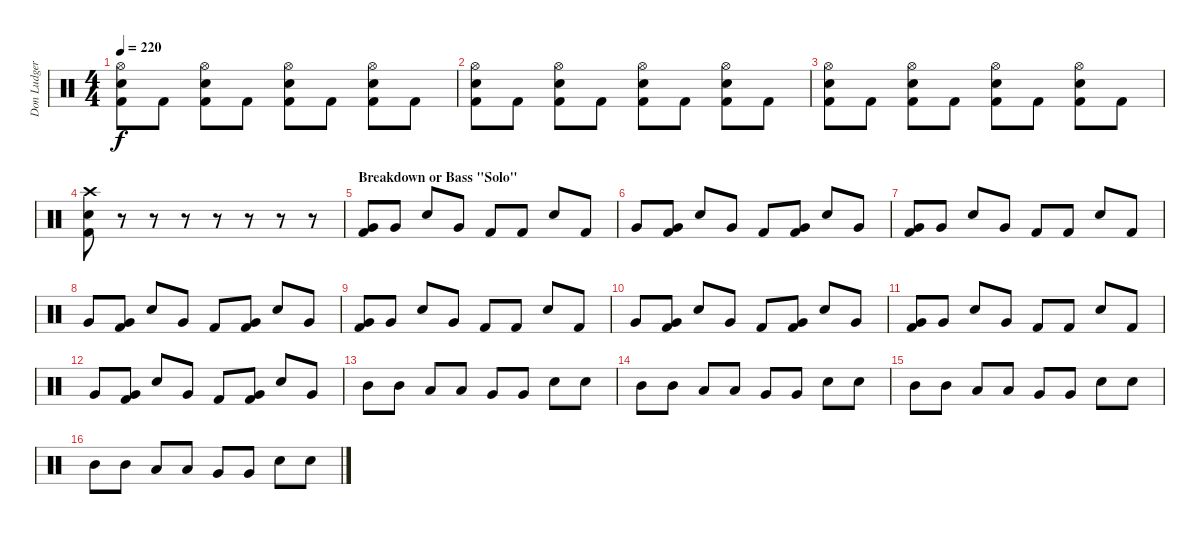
\track ("Don Ludger" "Don Ludger") {instrument percussion}
\staff {score}
\articulation defaults
\ts (4 4)
\tempo 220
\clef neutral
\ks c
("Hi-Hat (open)" "Electric Snare (hit)" "Kick (hit) 2").8{dy f} "Kick (hit) 2".8 ("Hi-Hat (open)" "Electric Snare (hit)" "Kick (hit) 2").8 "Kick (hit) 2".8 ("Hi-Hat (open)" "Electric Snare (hit)" "Kick (hit) 2").8 "Kick (hit) 2".8 ("Hi-Hat (open)" "Electric Snare (hit)" "Kick (hit) 2").8 "Kick (hit) 2".8 |
("Hi-Hat (open)" "Electric Snare (hit)" "Kick (hit) 2").8 "Kick (hit) 2".8 ("Hi-Hat (open)" "Electric Snare (hit)" "Kick (hit) 2").8 "Kick (hit) 2".8 ("Hi-Hat (open)" "Electric Snare (hit)" "Kick (hit) 2").8 "Kick (hit) 2".8 ("Hi-Hat (open)" "Electric Snare (hit)" "Kick (hit) 2").8 "Kick (hit) 2".8 |
("Hi-Hat (open)" "Electric Snare (hit)" "Kick (hit) 2").8 "Kick (hit) 2".8 ("Hi-Hat (open)" "Electric Snare (hit)" "Kick (hit) 2").8 "Kick (hit) 2".8 ("Hi-Hat (open)" "Electric Snare (hit)" "Kick (hit) 2").8 "Kick (hit) 2".8 ("Hi-Hat (open)" "Electric Snare (hit)" "Kick (hit) 2").8 "Kick (hit) 2".8 |
("Crash high (hit)" "Electric Snare (hit)" "Kick (hit) 2").8 r.8 r.8 r.8 r.8 r.8 r.8 r.8 |
\section ("" "Breakdown or Bass \"Solo\"")
("Very Low Tom (hit)" "Kick (hit) 2").8 "Very Low Tom (hit)".8 "Electric Snare (hit)".8 "Very Low Tom (hit)".8 "Kick (hit) 2".8 "Kick (hit) 2".8 "Electric Snare (hit)".8 "Kick (hit) 2".8 |
"Very Low Tom (hit)".8 ("Very Low Tom (hit)" "Kick (hit) 2").8 "Electric Snare (hit)".8 "Very Low Tom (hit)".8 "Kick (hit) 2".8 ("Very Low Tom (hit)" "Kick (hit) 2").8 "Electric Snare (hit)".8 "Very Low Tom (hit)".8 |
("Very Low Tom (hit)" "Kick (hit) 2").8 "Very Low Tom (hit)".8 "Electric Snare (hit)".8 "Very Low Tom (hit)".8 "Kick (hit) 2".8 "Kick (hit) 2".8 "Electric Snare (hit)".8 "Kick (hit) 2".8 |
"Very Low Tom (hit)".8 ("Very Low Tom (hit)" "Kick (hit) 2").8 "Electric Snare (hit)".8 "Very Low Tom (hit)".8 "Kick (hit) 2".8 ("Very Low Tom (hit)" "Kick (hit) 2").8 "Electric Snare (hit)".8 "Very Low Tom (hit)".8 |
("Very Low Tom (hit)" "Kick (hit) 2").8 "Very Low Tom (hit)".8 "Electric Snare (hit)".8 "Very Low Tom (hit)".8 "Kick (hit) 2".8 "Kick (hit) 2".8 "Electric Snare (hit)".8 "Kick (hit) 2".8 |
"Very Low Tom (hit)".8 ("Very Low Tom (hit)" "Kick (hit) 2").8 "Electric Snare (hit)".8 "Very Low Tom (hit)".8 "Kick (hit) 2".8 ("Very Low Tom (hit)" "Kick (hit) 2").8 "Electric Snare (hit)".8 "Very Low Tom (hit)".8 |
("Very Low Tom (hit)" "Kick (hit) 2").8 "Very Low Tom (hit)".8 "Electric Snare (hit)".8 "Very Low Tom (hit)".8 "Kick (hit) 2".8 "Kick (hit) 2".8 "Electric Snare (hit)".8 "Kick (hit) 2".8 |
"Very Low Tom (hit)".8 ("Very Low Tom (hit)" "Kick (hit) 2").8 "Electric Snare (hit)".8 "Very Low Tom (hit)".8 "Kick (hit) 2".8 ("Very Low Tom (hit)" "Kick (hit) 2").8 "Electric Snare (hit)".8 "Very Low Tom (hit)".8 |
"Mid Tom (hit)".8 "Mid Tom (hit)".8 "Low Tom (hit)".8 "Low Tom (hit)".8 "Very Low Tom (hit)".8 "Very Low Tom (hit)".8 "Electric Snare (hit)".8 "Electric Snare (hit)".8 |
"Mid Tom (hit)".8 "Mid Tom (hit)".8 "Low Tom (hit)".8 "Low Tom (hit)".8 "Very Low Tom (hit)".8 "Very Low Tom (hit)".8 "Electric Snare (hit)".8 "Electric Snare (hit)".8 |
"Mid Tom (hit)".8 "Mid Tom (hit)".8 "Low Tom (hit)".8 "Low Tom (hit)".8 "Very Low Tom (hit)".8 "Very Low Tom (hit)".8 "Electric Snare (hit)".8 "Electric Snare (hit)".8 |
"Mid Tom (hit)".8 "Mid Tom (hit)".8 "Low Tom (hit)".8 "Low Tom (hit)".8 "Very Low Tom (hit)".8 "Very Low Tom (hit)".8 "Electric Snare (hit)".8 "Electric Snare (hit)".8
